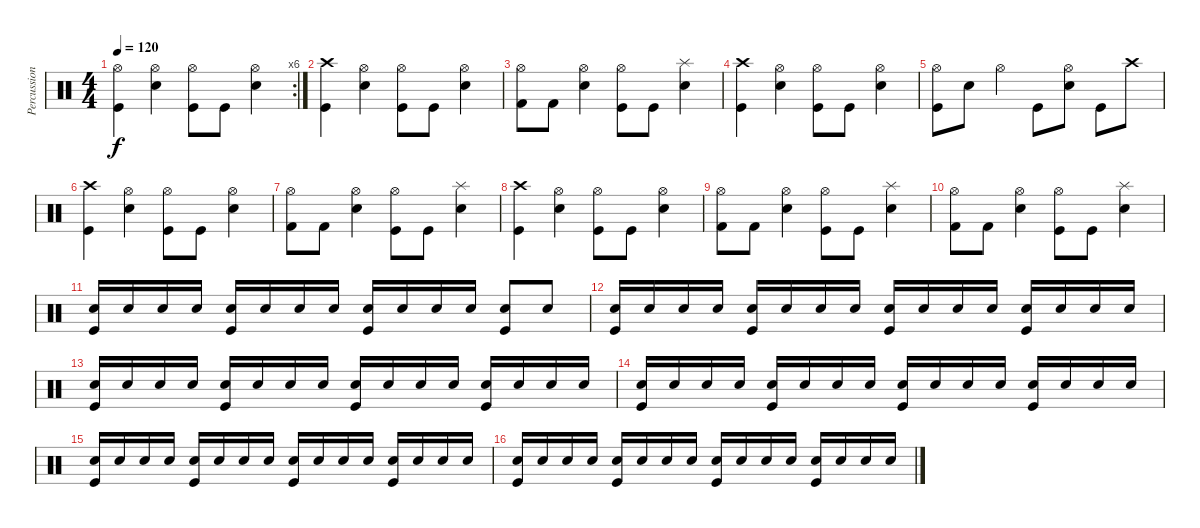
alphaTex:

\track ("Percussion" "Percussion") {instrument percussion}
\staff {score}
\articulation defaults
\rc 6
\ts (4 4)
\tempo 120
\clef neutral
\ks c
("Hi-Hat (open)" "Kick (hit)").4{dy f} ("Hi-Hat (open)" "Snare (hit) 2").4 ("Hi-Hat (open)" "Kick (hit)").8 "Kick (hit)".8 ("Hi-Hat (open)" "Snare (hit) 2").4 |
("Crash high (hit)" "Kick (hit)").4 ("Hi-Hat (open)" "Snare (hit) 2").4 ("Hi-Hat (open)" "Kick (hit)").8 "Kick (hit)".8 ("Hi-Hat (open)" "Snare (hit) 2").4 |
("Hi-Hat (open)" "Kick (hit) 2").8 "Kick (hit) 2".8 ("Hi-Hat (open)" "Snare (hit) 2").4 ("Hi-Hat (open)" "Kick (hit)").8 "Kick (hit)".8 ("Splash (hit)" "Snare (hit) 2").4 |
("Crash high (hit)" "Kick (hit)").4 ("Hi-Hat (open)" "Snare (hit) 2").4 ("Hi-Hat (open)" "Kick (hit)").8 "Kick (hit)".8 ("Hi-Hat (open)" "Snare (hit) 2").4 |
("Hi-Hat (open)" "Kick (hit)").8 "Snare (hit) 2".8 "Hi-Hat (open)".4 "Kick (hit)".8 ("Hi-Hat (open)" "Snare (hit) 2").8 "Kick (hit)".8 "Crash high (hit)".8 |
("Crash high (hit)" "Kick (hit)").4 ("Hi-Hat (open)" "Snare (hit) 2").4 ("Hi-Hat (open)" "Kick (hit)").8 "Kick (hit)".8 ("Hi-Hat (open)" "Snare (hit) 2").4 |
("Hi-Hat (open)" "Kick (hit) 2").8 "Kick (hit) 2".8 ("Hi-Hat (open)" "Snare (hit) 2").4 ("Hi-Hat (open)" "Kick (hit)").8 "Kick (hit)".8 ("Splash (hit)" "Snare (hit) 2").4 |
("Crash high (hit)" "Kick (hit)").4 ("Hi-Hat (open)" "Snare (hit) 2").4 ("Hi-Hat (open)" "Kick (hit)").8 "Kick (hit)".8 ("Hi-Hat (open)" "Snare (hit) 2").4 |
("Hi-Hat (open)" "Kick (hit) 2").8 "Kick (hit) 2".8 ("Hi-Hat (open)" "Snare (hit) 2").4 ("Hi-Hat (open)" "Kick (hit)").8 "Kick (hit)".8 ("Splash (hit)" "Snare (hit) 2").4 |
("Hi-Hat (open)" "Kick (hit) 2").8 "Kick (hit) 2".8 ("Hi-Hat (open)" "Snare (hit) 2").4 ("Hi-Hat (open)" "Kick (hit)").8 "Kick (hit)".8 ("Splash (hit)" "Snare (hit) 2").4 |
("Snare (hit) 2" "Kick (hit)").16 "Snare (hit) 2".16 "Snare (hit) 2".16 "Snare (hit) 2".16 ("Snare (hit) 2" "Kick (hit)").16 "Snare (hit) 2".16 "Snare (hit) 2".16 "Snare (hit) 2".16 ("Snare (hit) 2" "Kick (hit)").16 "Snare (hit) 2".16 "Snare (hit) 2".16 "Snare (hit) 2".16 ("Snare (hit) 2" "Kick (hit)").8 "Snare (hit) 2".8 |
("Snare (hit) 2" "Kick (hit)").16 "Snare (hit) 2".16 "Snare (hit) 2".16 "Snare (hit) 2".16 ("Snare (hit) 2" "Kick (hit)").16 "Snare (hit) 2".16 "Snare (hit) 2".16 "Snare (hit) 2".16 ("Snare (hit) 2" "Kick (hit)").16 "Snare (hit) 2".16 "Snare (hit) 2".16 "Snare (hit) 2".16 ("Snare (hit) 2" "Kick (hit)").16 "Snare (hit) 2".16 "Snare (hit) 2".16 "Snare (hit) 2".16 |
("Snare (hit) 2" "Kick (hit)").16 "Snare (hit) 2".16 "Snare (hit) 2".16 "Snare (hit) 2".16 ("Snare (hit) 2" "Kick (hit)").16 "Snare (hit) 2".16 "Snare (hit) 2".16 "Snare (hit) 2".16 ("Snare (hit) 2" "Kick (hit)").16 "Snare (hit) 2".16 "Snare (hit) 2".16 "Snare (hit) 2".16 ("Snare (hit) 2" "Kick (hit)").16 "Snare (hit) 2".16 "Snare (hit) 2".16 "Snare (hit) 2".16 |
("Snare (hit) 2" "Kick (hit)").16 "Snare (hit) 2".16 "Snare (hit) 2".16 "Snare (hit) 2".16 ("Snare (hit) 2" "Kick (hit)").16 "Snare (hit) 2".16 "Snare (hit) 2".16 "Snare (hit) 2".16 ("Snare (hit) 2" "Kick (hit)").16 "Snare (hit) 2".16 "Snare (hit) 2".16 "Snare (hit) 2".16 ("Snare (hit) 2" "Kick (hit)").16 "Snare (hit) 2".16 "Snare (hit) 2".16 "Snare (hit) 2".16 |
("Snare (hit) 2" "Kick (hit)").16 "Snare (hit) 2".16 "Snare (hit) 2".16 "Snare (hit) 2".16 ("Snare (hit) 2" "Kick (hit)").16 "Snare (hit) 2".16 "Snare (hit) 2".16 "Snare (hit) 2".16 ("Snare (hit) 2" "Kick (hit)").16 "Snare (hit) 2".16 "Snare (hit) 2".16 "Snare (hit) 2".16 ("Snare (hit) 2" "Kick (hit)").16 "Snare (hit) 2".16 "Snare (hit) 2".16 "Snare (hit) 2".16 |
("Snare (hit) 2" "Kick (hit)").16 "Snare (hit) 2".16 "Snare (hit) 2".16 "Snare (hit) 2".16 ("Snare (hit) 2" "Kick (hit)").16 "Snare (hit) 2".16 "Snare (hit) 2".16 "Snare (hit) 2".16 ("Snare (hit) 2" "Kick (hit)").16 "Snare (hit) 2".16 "Snare (hit) 2".16 "Snare (hit) 2".16 ("Snare (hit) 2" "Kick (hit)").16 "Snare (hit) 2".16 "Snare (hit) 2".16 "Snare (hit) 2".16
